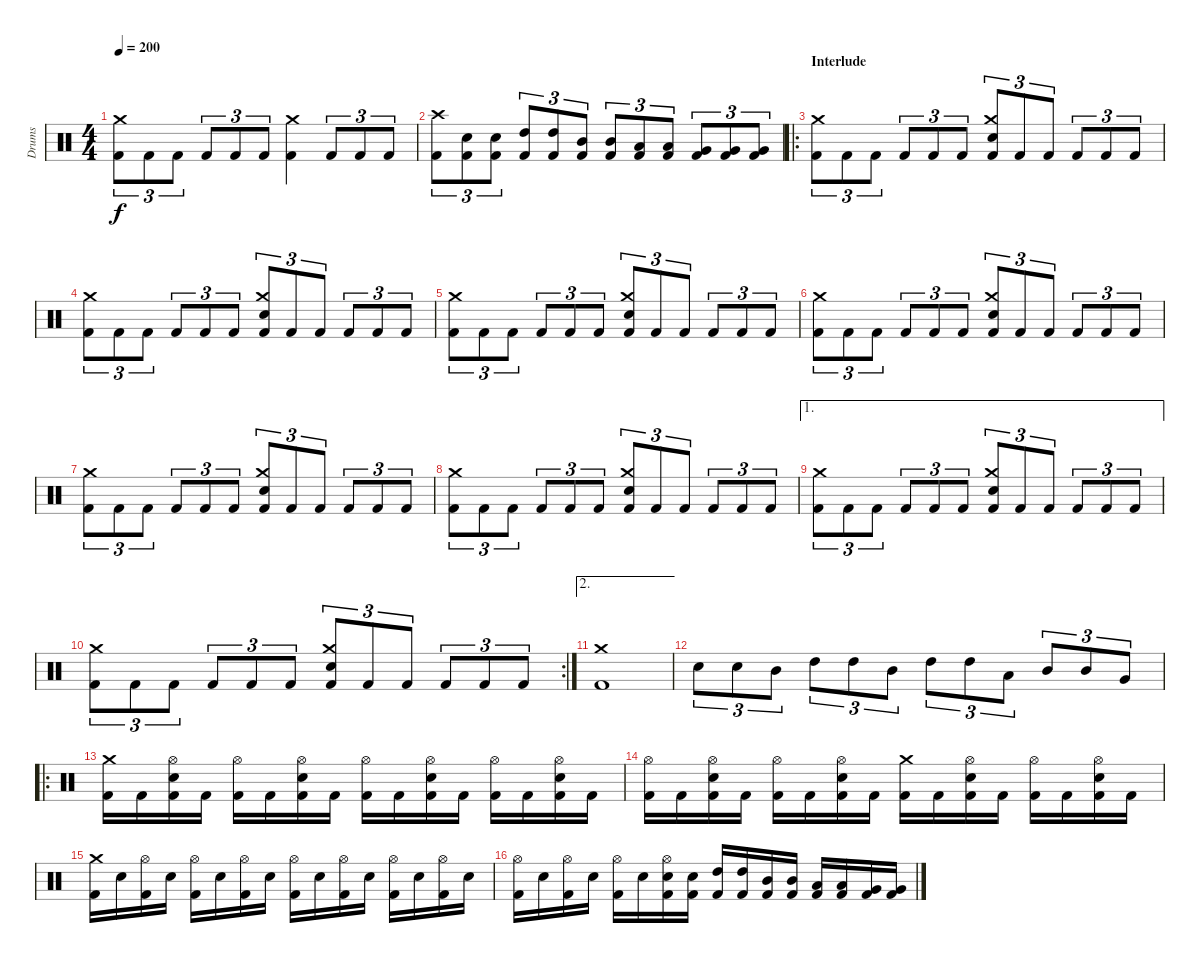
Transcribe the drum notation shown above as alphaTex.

\track ("Drums" "Drums") {instrument percussion}
\staff {score}
\articulation defaults
\ts (4 4)
\tempo 200
\clef neutral
\ks c
("Kick (hit) 2" "Crash medium (hit)").8{tu (3 2) dy f} "Kick (hit) 2".8{tu (3 2)} "Kick (hit) 2".8{tu (3 2)} "Kick (hit) 2".8{tu (3 2)} "Kick (hit) 2".8{tu (3 2)} "Kick (hit) 2".8{tu (3 2)} ("Kick (hit) 2" "Crash medium (hit)").4 "Kick (hit) 2".8{tu (3 2)} "Kick (hit) 2".8{tu (3 2)} "Kick (hit) 2".8{tu (3 2)} |
("Kick (hit) 2" "Crash high (hit)").8{tu (3 2)} ("Kick (hit) 2" "Electric Snare (hit)").8{tu (3 2)} ("Kick (hit) 2" "Electric Snare (hit)").8{tu (3 2)} ("Kick (hit) 2" "High Tom (hit)").8{tu (3 2)} ("Kick (hit) 2" "High Tom (hit)").8{tu (3 2)} ("Kick (hit) 2" "Mid Tom (hit)").8{tu (3 2)} ("Kick (hit) 2" "Mid Tom (hit)").8{tu (3 2)} ("Kick (hit) 2" "Low Tom (hit)").8{tu (3 2)} ("Kick (hit) 2" "Low Tom (hit)").8{tu (3 2)} ("Kick (hit) 2" "Very Low Tom (hit)").8{tu (3 2)} ("Kick (hit) 2" "Very Low Tom (hit)").8{tu (3 2)} ("Kick (hit) 2" "Very Low Tom (hit)").8{tu (3 2)} |
\ro
\section ("" "Interlude")
("Kick (hit) 2" "Crash medium (hit)").8{tu (3 2)} "Kick (hit) 2".8{tu (3 2)} "Kick (hit) 2".8{tu (3 2)} "Kick (hit) 2".8{tu (3 2)} "Kick (hit) 2".8{tu (3 2)} "Kick (hit) 2".8{tu (3 2)} ("Kick (hit) 2" "Electric Snare (hit)" "Crash medium (hit)").8{tu (3 2)} "Kick (hit) 2".8{tu (3 2)} "Kick (hit) 2".8{tu (3 2)} "Kick (hit) 2".8{tu (3 2)} "Kick (hit) 2".8{tu (3 2)} "Kick (hit) 2".8{tu (3 2)} |
("Kick (hit) 2" "Crash medium (hit)").8{tu (3 2)} "Kick (hit) 2".8{tu (3 2)} "Kick (hit) 2".8{tu (3 2)} "Kick (hit) 2".8{tu (3 2)} "Kick (hit) 2".8{tu (3 2)} "Kick (hit) 2".8{tu (3 2)} ("Kick (hit) 2" "Electric Snare (hit)" "Crash medium (hit)").8{tu (3 2)} "Kick (hit) 2".8{tu (3 2)} "Kick (hit) 2".8{tu (3 2)} "Kick (hit) 2".8{tu (3 2)} "Kick (hit) 2".8{tu (3 2)} "Kick (hit) 2".8{tu (3 2)} |
("Kick (hit) 2" "Crash medium (hit)").8{tu (3 2)} "Kick (hit) 2".8{tu (3 2)} "Kick (hit) 2".8{tu (3 2)} "Kick (hit) 2".8{tu (3 2)} "Kick (hit) 2".8{tu (3 2)} "Kick (hit) 2".8{tu (3 2)} ("Kick (hit) 2" "Electric Snare (hit)" "Crash medium (hit)").8{tu (3 2)} "Kick (hit) 2".8{tu (3 2)} "Kick (hit) 2".8{tu (3 2)} "Kick (hit) 2".8{tu (3 2)} "Kick (hit) 2".8{tu (3 2)} "Kick (hit) 2".8{tu (3 2)} |
("Kick (hit) 2" "Crash medium (hit)").8{tu (3 2)} "Kick (hit) 2".8{tu (3 2)} "Kick (hit) 2".8{tu (3 2)} "Kick (hit) 2".8{tu (3 2)} "Kick (hit) 2".8{tu (3 2)} "Kick (hit) 2".8{tu (3 2)} ("Kick (hit) 2" "Electric Snare (hit)" "Crash medium (hit)").8{tu (3 2)} "Kick (hit) 2".8{tu (3 2)} "Kick (hit) 2".8{tu (3 2)} "Kick (hit) 2".8{tu (3 2)} "Kick (hit) 2".8{tu (3 2)} "Kick (hit) 2".8{tu (3 2)} |
("Kick (hit) 2" "Crash medium (hit)").8{tu (3 2)} "Kick (hit) 2".8{tu (3 2)} "Kick (hit) 2".8{tu (3 2)} "Kick (hit) 2".8{tu (3 2)} "Kick (hit) 2".8{tu (3 2)} "Kick (hit) 2".8{tu (3 2)} ("Kick (hit) 2" "Electric Snare (hit)" "Crash medium (hit)").8{tu (3 2)} "Kick (hit) 2".8{tu (3 2)} "Kick (hit) 2".8{tu (3 2)} "Kick (hit) 2".8{tu (3 2)} "Kick (hit) 2".8{tu (3 2)} "Kick (hit) 2".8{tu (3 2)} |
("Kick (hit) 2" "Crash medium (hit)").8{tu (3 2)} "Kick (hit) 2".8{tu (3 2)} "Kick (hit) 2".8{tu (3 2)} "Kick (hit) 2".8{tu (3 2)} "Kick (hit) 2".8{tu (3 2)} "Kick (hit) 2".8{tu (3 2)} ("Kick (hit) 2" "Electric Snare (hit)" "Crash medium (hit)").8{tu (3 2)} "Kick (hit) 2".8{tu (3 2)} "Kick (hit) 2".8{tu (3 2)} "Kick (hit) 2".8{tu (3 2)} "Kick (hit) 2".8{tu (3 2)} "Kick (hit) 2".8{tu (3 2)} |
\ae 1
("Kick (hit) 2" "Crash medium (hit)").8{tu (3 2)} "Kick (hit) 2".8{tu (3 2)} "Kick (hit) 2".8{tu (3 2)} "Kick (hit) 2".8{tu (3 2)} "Kick (hit) 2".8{tu (3 2)} "Kick (hit) 2".8{tu (3 2)} ("Kick (hit) 2" "Electric Snare (hit)" "Crash medium (hit)").8{tu (3 2)} "Kick (hit) 2".8{tu (3 2)} "Kick (hit) 2".8{tu (3 2)} "Kick (hit) 2".8{tu (3 2)} "Kick (hit) 2".8{tu (3 2)} "Kick (hit) 2".8{tu (3 2)} |
\rc 2
("Kick (hit) 2" "Crash medium (hit)").8{tu (3 2)} "Kick (hit) 2".8{tu (3 2)} "Kick (hit) 2".8{tu (3 2)} "Kick (hit) 2".8{tu (3 2)} "Kick (hit) 2".8{tu (3 2)} "Kick (hit) 2".8{tu (3 2)} ("Kick (hit) 2" "Electric Snare (hit)" "Crash medium (hit)").8{tu (3 2)} "Kick (hit) 2".8{tu (3 2)} "Kick (hit) 2".8{tu (3 2)} "Kick (hit) 2".8{tu (3 2)} "Kick (hit) 2".8{tu (3 2)} "Kick (hit) 2".8{tu (3 2)} |
\ae 2
("Kick (hit) 2" "Crash medium (hit)").1 |
"Electric Snare (hit)".8{tu (3 2)} "Electric Snare (hit)".8{tu (3 2)} "Mid Tom (hit)".8{tu (3 2)} "High Tom (hit)".8{tu (3 2)} "High Tom (hit)".8{tu (3 2)} "Mid Tom (hit)".8{tu (3 2)} "High Tom (hit)".8{tu (3 2)} "High Tom (hit)".8{tu (3 2)} "Low Tom (hit)".8{tu (3 2)} "Mid Tom (hit)".8{tu (3 2)} "Mid Tom (hit)".8{tu (3 2)} "Very Low Tom (hit)".8{tu (3 2)} |
\ro
("Kick (hit) 2" "Crash medium (hit)").16 "Kick (hit) 2".16 ("Kick (hit) 2" "Electric Snare (hit)" "Hi-Hat (open)").16 "Kick (hit) 2".16 ("Kick (hit) 2" "Hi-Hat (open)").16 "Kick (hit) 2".16 ("Kick (hit) 2" "Electric Snare (hit)" "Hi-Hat (open)").16 "Kick (hit) 2".16 ("Kick (hit) 2" "Hi-Hat (open)").16 "Kick (hit) 2".16 ("Kick (hit) 2" "Electric Snare (hit)" "Hi-Hat (open)").16 "Kick (hit) 2".16 ("Kick (hit) 2" "Hi-Hat (open)").16 "Kick (hit) 2".16 ("Kick (hit) 2" "Electric Snare (hit)" "Hi-Hat (open)").16 "Kick (hit) 2".16 |
("Kick (hit) 2" "Hi-Hat (open)").16 "Kick (hit) 2".16 ("Kick (hit) 2" "Electric Snare (hit)" "Hi-Hat (open)").16 "Kick (hit) 2".16 ("Kick (hit) 2" "Hi-Hat (open)").16 "Kick (hit) 2".16 ("Kick (hit) 2" "Electric Snare (hit)" "Hi-Hat (open)").16 "Kick (hit) 2".16 ("Kick (hit) 2" "Crash medium (hit)").16 "Kick (hit) 2".16 ("Kick (hit) 2" "Electric Snare (hit)" "Hi-Hat (open)").16 "Kick (hit) 2".16 ("Kick (hit) 2" "Hi-Hat (open)").16 "Kick (hit) 2".16 ("Kick (hit) 2" "Electric Snare (hit)" "Hi-Hat (open)").16 "Kick (hit) 2".16 |
("Kick (hit) 2" "Crash medium (hit)").16 "Electric Snare (hit)".16 ("Kick (hit) 2" "Hi-Hat (open)").16 "Electric Snare (hit)".16 ("Kick (hit) 2" "Hi-Hat (open)").16 "Electric Snare (hit)".16 ("Kick (hit) 2" "Hi-Hat (open)").16 "Electric Snare (hit)".16 ("Kick (hit) 2" "Hi-Hat (open)").16 "Electric Snare (hit)".16 ("Kick (hit) 2" "Hi-Hat (open)").16 "Electric Snare (hit)".16 ("Kick (hit) 2" "Hi-Hat (open)").16 "Electric Snare (hit)".16 ("Kick (hit) 2" "Hi-Hat (open)").16 "Electric Snare (hit)".16 |
("Kick (hit) 2" "Hi-Hat (open)").16 "Electric Snare (hit)".16 ("Kick (hit) 2" "Hi-Hat (open)").16 "Electric Snare (hit)".16 ("Kick (hit) 2" "Hi-Hat (open)").16 "Electric Snare (hit)".16 ("Kick (hit) 2" "Electric Snare (hit)" "Hi-Hat (open)").16 ("Kick (hit) 2" "Electric Snare (hit)").16 ("Kick (hit) 2" "High Tom (hit)").16 ("Kick (hit) 2" "High Tom (hit)").16 ("Kick (hit) 2" "Mid Tom (hit)").16 ("Kick (hit) 2" "Mid Tom (hit)").16 ("Kick (hit) 2" "Low Tom (hit)").16 ("Kick (hit) 2" "Low Tom (hit)").16 ("Kick (hit) 2" "Very Low Tom (hit)").16 ("Kick (hit) 2" "Very Low Tom (hit)").16
